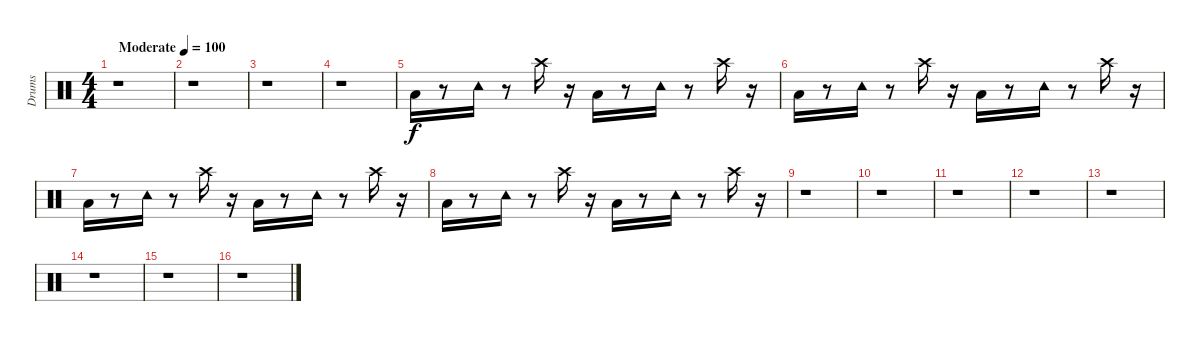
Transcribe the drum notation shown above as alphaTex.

\track ("Drums" "Drums") {instrument percussion}
\staff {score}
\articulation defaults
\ts (4 4)
\tempo (100 "Moderate")
\clef neutral
\ks c
r.1{dy f} |
r.1 |
r.1 |
r.1 |
"Low Floor Tom (hit)".16 r.8 "Tambourine (hit)".16 r.8 "Crash high (hit)".16 r.16 "Low Floor Tom (hit)".16 r.8 "Tambourine (hit)".16 r.8 "Crash high (hit)".16 r.16 |
"Low Floor Tom (hit)".16 r.8 "Tambourine (hit)".16 r.8 "Crash high (hit)".16 r.16 "Low Floor Tom (hit)".16 r.8 "Tambourine (hit)".16 r.8 "Crash high (hit)".16 r.16 |
"Low Floor Tom (hit)".16 r.8 "Tambourine (hit)".16 r.8 "Crash high (hit)".16 r.16 "Low Floor Tom (hit)".16 r.8 "Tambourine (hit)".16 r.8 "Crash high (hit)".16 r.16 |
"Low Floor Tom (hit)".16 r.8 "Tambourine (hit)".16 r.8 "Crash high (hit)".16 r.16 "Low Floor Tom (hit)".16 r.8 "Tambourine (hit)".16 r.8 "Crash high (hit)".16 r.16 |
r.1 |
r.1 |
r.1 |
r.1 |
r.1 |
r.1 |
r.1 |
r.1
